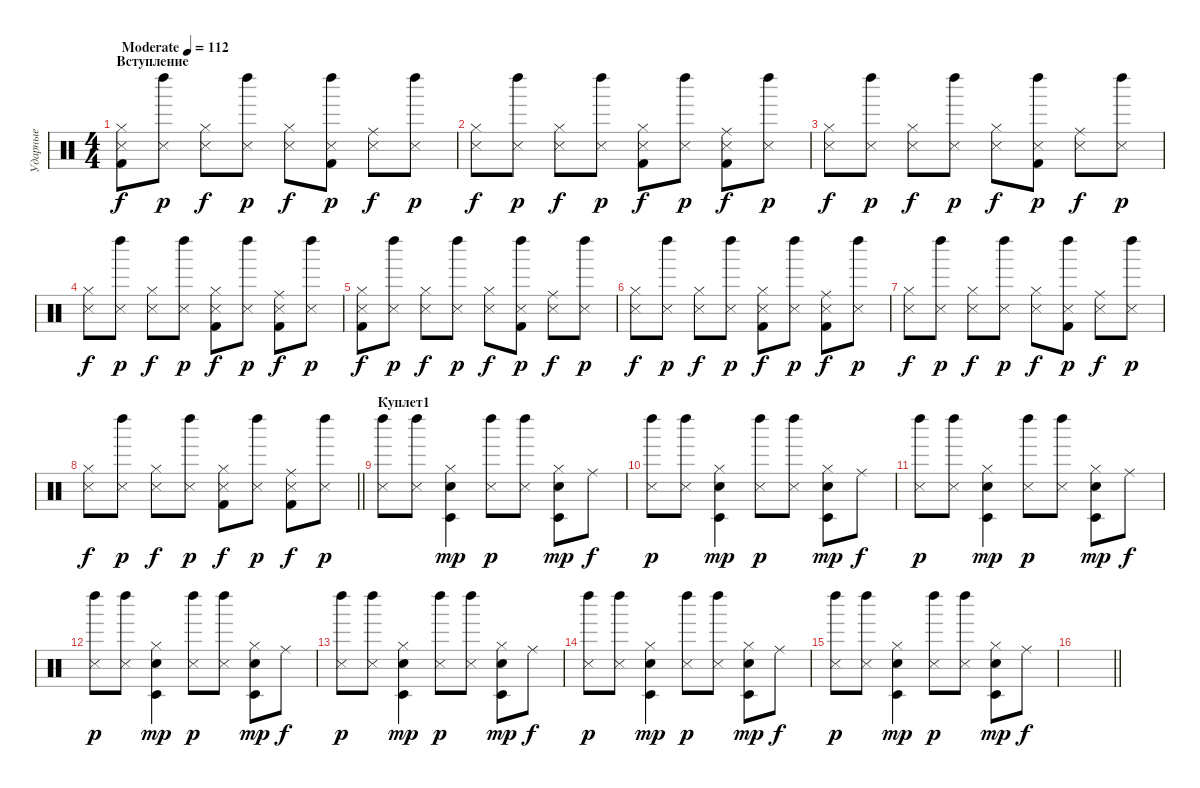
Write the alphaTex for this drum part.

\track ("Ударные" "Ударные") {instrument percussion}
\staff {score}
\articulation defaults
\ts (4 4)
\section ("" "Вступление")
\tempo (112 "Moderate")
\clef neutral
\ks c
("Snare (side stick) 3" "Hi-Hat (closed)" "Kick (hit) 2").8{dy f} ("Left Maraca (hit)" "Metronome (hit)").8{dy p} ("Snare (side stick) 3" "Hi-Hat (closed)").8{dy f} ("Left Maraca (hit)" "Metronome (hit)").8{dy p} ("Snare (side stick) 3" "Hi-Hat (closed)").8{dy f} ("Left Maraca (hit)" "Metronome (hit)" "Kick (hit) 2").8{dy p} ("Snare (side stick) 3" "Ride (middle)").8{dy f} ("Left Maraca (hit)" "Metronome (hit)").8{dy p} |
("Snare (side stick) 3" "Hi-Hat (closed)").8{dy f} ("Left Maraca (hit)" "Metronome (hit)").8{dy p} ("Snare (side stick) 3" "Hi-Hat (closed)").8{dy f} ("Left Maraca (hit)" "Metronome (hit)").8{dy p} ("Snare (side stick) 3" "Hi-Hat (closed)" "Kick (hit) 2").8{dy f} ("Left Maraca (hit)" "Metronome (hit)").8{dy p} ("Snare (side stick) 3" "Ride (middle)" "Kick (hit) 2").8{dy f} ("Left Maraca (hit)" "Metronome (hit)").8{dy p} |
("Snare (side stick) 3" "Hi-Hat (closed)").8{dy f} ("Left Maraca (hit)" "Metronome (hit)").8{dy p} ("Snare (side stick) 3" "Hi-Hat (closed)").8{dy f} ("Left Maraca (hit)" "Metronome (hit)").8{dy p} ("Snare (side stick) 3" "Hi-Hat (closed)").8{dy f} ("Left Maraca (hit)" "Metronome (hit)" "Kick (hit) 2").8{dy p} ("Snare (side stick) 3" "Ride (middle)").8{dy f} ("Left Maraca (hit)" "Metronome (hit)").8{dy p} |
("Snare (side stick) 3" "Hi-Hat (closed)").8{dy f} ("Left Maraca (hit)" "Metronome (hit)").8{dy p} ("Snare (side stick) 3" "Hi-Hat (closed)").8{dy f} ("Left Maraca (hit)" "Metronome (hit)").8{dy p} ("Snare (side stick) 3" "Hi-Hat (closed)" "Kick (hit) 2").8{dy f} ("Left Maraca (hit)" "Metronome (hit)").8{dy p} ("Snare (side stick) 3" "Ride (middle)" "Kick (hit) 2").8{dy f} ("Left Maraca (hit)" "Metronome (hit)").8{dy p} |
("Snare (side stick) 3" "Hi-Hat (closed)" "Kick (hit) 2").8{dy f} ("Left Maraca (hit)" "Metronome (hit)").8{dy p} ("Snare (side stick) 3" "Hi-Hat (closed)").8{dy f} ("Left Maraca (hit)" "Metronome (hit)").8{dy p} ("Snare (side stick) 3" "Hi-Hat (closed)").8{dy f} ("Left Maraca (hit)" "Metronome (hit)" "Kick (hit) 2").8{dy p} ("Snare (side stick) 3" "Ride (middle)").8{dy f} ("Left Maraca (hit)" "Metronome (hit)").8{dy p} |
("Snare (side stick) 3" "Hi-Hat (closed)").8{dy f} ("Left Maraca (hit)" "Metronome (hit)").8{dy p} ("Snare (side stick) 3" "Hi-Hat (closed)").8{dy f} ("Left Maraca (hit)" "Metronome (hit)").8{dy p} ("Snare (side stick) 3" "Hi-Hat (closed)" "Kick (hit) 2").8{dy f} ("Left Maraca (hit)" "Metronome (hit)").8{dy p} ("Snare (side stick) 3" "Ride (middle)" "Kick (hit) 2").8{dy f} ("Left Maraca (hit)" "Metronome (hit)").8{dy p} |
("Snare (side stick) 3" "Hi-Hat (closed)").8{dy f} ("Left Maraca (hit)" "Metronome (hit)").8{dy p} ("Snare (side stick) 3" "Hi-Hat (closed)").8{dy f} ("Left Maraca (hit)" "Metronome (hit)").8{dy p} ("Snare (side stick) 3" "Hi-Hat (closed)").8{dy f} ("Left Maraca (hit)" "Metronome (hit)" "Kick (hit) 2").8{dy p} ("Snare (side stick) 3" "Ride (middle)").8{dy f} ("Left Maraca (hit)" "Metronome (hit)").8{dy p} |
\barLineRight lightlight
("Snare (side stick) 3" "Hi-Hat (closed)").8{dy f} ("Left Maraca (hit)" "Metronome (hit)").8{dy p} ("Snare (side stick) 3" "Hi-Hat (closed)").8{dy f} ("Left Maraca (hit)" "Metronome (hit)").8{dy p} ("Snare (side stick) 3" "Hi-Hat (closed)" "Kick (hit) 2").8{dy f} ("Left Maraca (hit)" "Metronome (hit)").8{dy p} ("Snare (side stick) 3" "Ride (middle)" "Kick (hit) 2").8{dy f} ("Left Maraca (hit)" "Metronome (hit)").8{dy p} |
\section ("" "Куплет1")
("Left Maraca (hit)" "Metronome (hit)").8 ("Left Maraca (hit)" "Metronome (hit)").8 ("Timbale low (hit)" "Electric Snare (hit)" "Hi-Hat (closed)").4{dy mp} ("Left Maraca (hit)" "Metronome (hit)").8{dy p} ("Left Maraca (hit)" "Metronome (hit)").8 ("Timbale low (hit)" "Electric Snare (hit)" "Hi-Hat (closed)").8{dy mp} "Ride (middle)".8{dy f} |
("Left Maraca (hit)" "Metronome (hit)").8{dy p} ("Left Maraca (hit)" "Metronome (hit)").8 ("Timbale low (hit)" "Electric Snare (hit)" "Hi-Hat (closed)").4{dy mp} ("Left Maraca (hit)" "Metronome (hit)").8{dy p} ("Left Maraca (hit)" "Metronome (hit)").8 ("Timbale low (hit)" "Electric Snare (hit)" "Hi-Hat (closed)").8{dy mp} "Ride (middle)".8{dy f} |
("Left Maraca (hit)" "Metronome (hit)").8{dy p} ("Left Maraca (hit)" "Metronome (hit)").8 ("Timbale low (hit)" "Electric Snare (hit)" "Hi-Hat (closed)").4{dy mp} ("Left Maraca (hit)" "Metronome (hit)").8{dy p} ("Left Maraca (hit)" "Metronome (hit)").8 ("Timbale low (hit)" "Electric Snare (hit)" "Hi-Hat (closed)").8{dy mp} "Ride (middle)".8{dy f} |
("Left Maraca (hit)" "Metronome (hit)").8{dy p} ("Left Maraca (hit)" "Metronome (hit)").8 ("Timbale low (hit)" "Electric Snare (hit)" "Hi-Hat (closed)").4{dy mp} ("Left Maraca (hit)" "Metronome (hit)").8{dy p} ("Left Maraca (hit)" "Metronome (hit)").8 ("Timbale low (hit)" "Electric Snare (hit)" "Hi-Hat (closed)").8{dy mp} "Ride (middle)".8{dy f} |
("Left Maraca (hit)" "Metronome (hit)").8{dy p} ("Left Maraca (hit)" "Metronome (hit)").8 ("Timbale low (hit)" "Electric Snare (hit)" "Hi-Hat (closed)").4{dy mp} ("Left Maraca (hit)" "Metronome (hit)").8{dy p} ("Left Maraca (hit)" "Metronome (hit)").8 ("Timbale low (hit)" "Electric Snare (hit)" "Hi-Hat (closed)").8{dy mp} "Ride (middle)".8{dy f} |
("Left Maraca (hit)" "Metronome (hit)").8{dy p} ("Left Maraca (hit)" "Metronome (hit)").8 ("Timbale low (hit)" "Electric Snare (hit)" "Hi-Hat (closed)").4{dy mp} ("Left Maraca (hit)" "Metronome (hit)").8{dy p} ("Left Maraca (hit)" "Metronome (hit)").8 ("Timbale low (hit)" "Electric Snare (hit)" "Hi-Hat (closed)").8{dy mp} "Ride (middle)".8{dy f} |
("Left Maraca (hit)" "Metronome (hit)").8{dy p} ("Left Maraca (hit)" "Metronome (hit)").8 ("Timbale low (hit)" "Electric Snare (hit)" "Hi-Hat (closed)").4{dy mp} ("Left Maraca (hit)" "Metronome (hit)").8{dy p} ("Left Maraca (hit)" "Metronome (hit)").8 ("Timbale low (hit)" "Electric Snare (hit)" "Hi-Hat (closed)").8{dy mp} "Ride (middle)".8{dy f} |
\barLineRight lightlight
